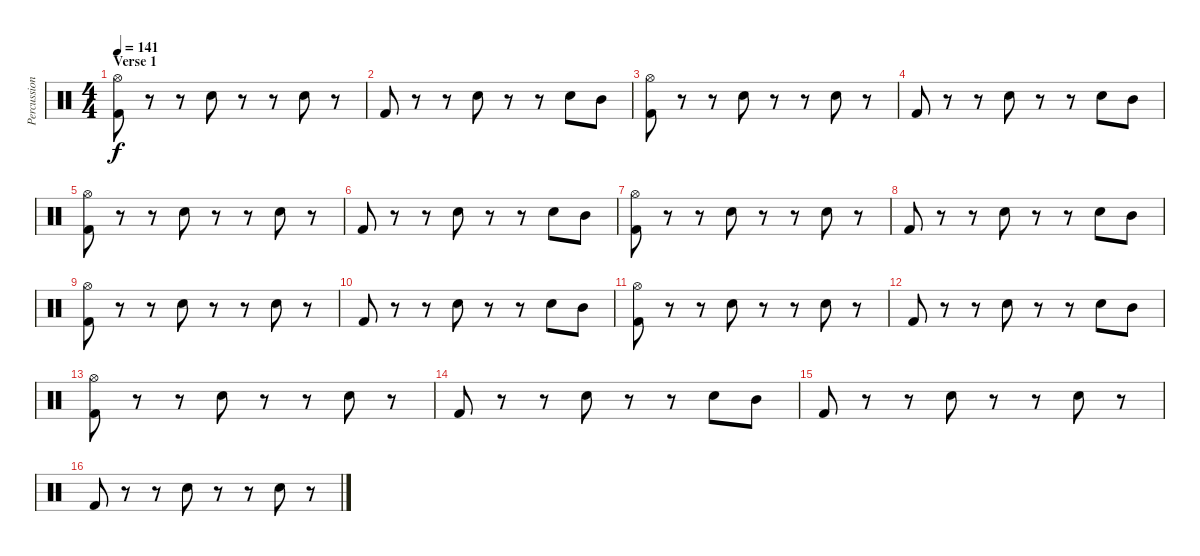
\track ("Percussion" "Percussion") {instrument percussion}
\staff {score}
\articulation defaults
\ts (4 4)
\section ("" "Verse 1")
\tempo 141
\clef neutral
\ks c
("Hi-Hat (open)" "Kick (hit) 2").8{dy f} r.8 r.8 "Electric Snare (hit)".8 r.8 r.8 "Electric Snare (hit)".8 r.8 |
"Kick (hit) 2".8 r.8 r.8 "Electric Snare (hit)".8 r.8 r.8 "Electric Snare (hit)".8 "Mid Tom (hit)".8 |
("Hi-Hat (open)" "Kick (hit) 2").8 r.8 r.8 "Electric Snare (hit)".8 r.8 r.8 "Electric Snare (hit)".8 r.8 |
"Kick (hit) 2".8 r.8 r.8 "Electric Snare (hit)".8 r.8 r.8 "Electric Snare (hit)".8 "Mid Tom (hit)".8 |
("Hi-Hat (open)" "Kick (hit) 2").8 r.8 r.8 "Electric Snare (hit)".8 r.8 r.8 "Electric Snare (hit)".8 r.8 |
"Kick (hit) 2".8 r.8 r.8 "Electric Snare (hit)".8 r.8 r.8 "Electric Snare (hit)".8 "Mid Tom (hit)".8 |
("Hi-Hat (open)" "Kick (hit) 2").8 r.8 r.8 "Electric Snare (hit)".8 r.8 r.8 "Electric Snare (hit)".8 r.8 |
"Kick (hit) 2".8 r.8 r.8 "Electric Snare (hit)".8 r.8 r.8 "Electric Snare (hit)".8 "Mid Tom (hit)".8 |
("Hi-Hat (open)" "Kick (hit) 2").8 r.8 r.8 "Electric Snare (hit)".8 r.8 r.8 "Electric Snare (hit)".8 r.8 |
"Kick (hit) 2".8 r.8 r.8 "Electric Snare (hit)".8 r.8 r.8 "Electric Snare (hit)".8 "Mid Tom (hit)".8 |
("Hi-Hat (open)" "Kick (hit) 2").8 r.8 r.8 "Electric Snare (hit)".8 r.8 r.8 "Electric Snare (hit)".8 r.8 |
"Kick (hit) 2".8 r.8 r.8 "Electric Snare (hit)".8 r.8 r.8 "Electric Snare (hit)".8 "Mid Tom (hit)".8 |
("Hi-Hat (open)" "Kick (hit) 2").8 r.8 r.8 "Electric Snare (hit)".8 r.8 r.8 "Electric Snare (hit)".8 r.8 |
"Kick (hit) 2".8 r.8 r.8 "Electric Snare (hit)".8 r.8 r.8 "Electric Snare (hit)".8 "Mid Tom (hit)".8 |
"Kick (hit) 2".8 r.8 r.8 "Electric Snare (hit)".8 r.8 r.8 "Electric Snare (hit)".8 r.8 |
"Kick (hit) 2".8 r.8 r.8 "Electric Snare (hit)".8 r.8 r.8 "Electric Snare (hit)".8 r.8
